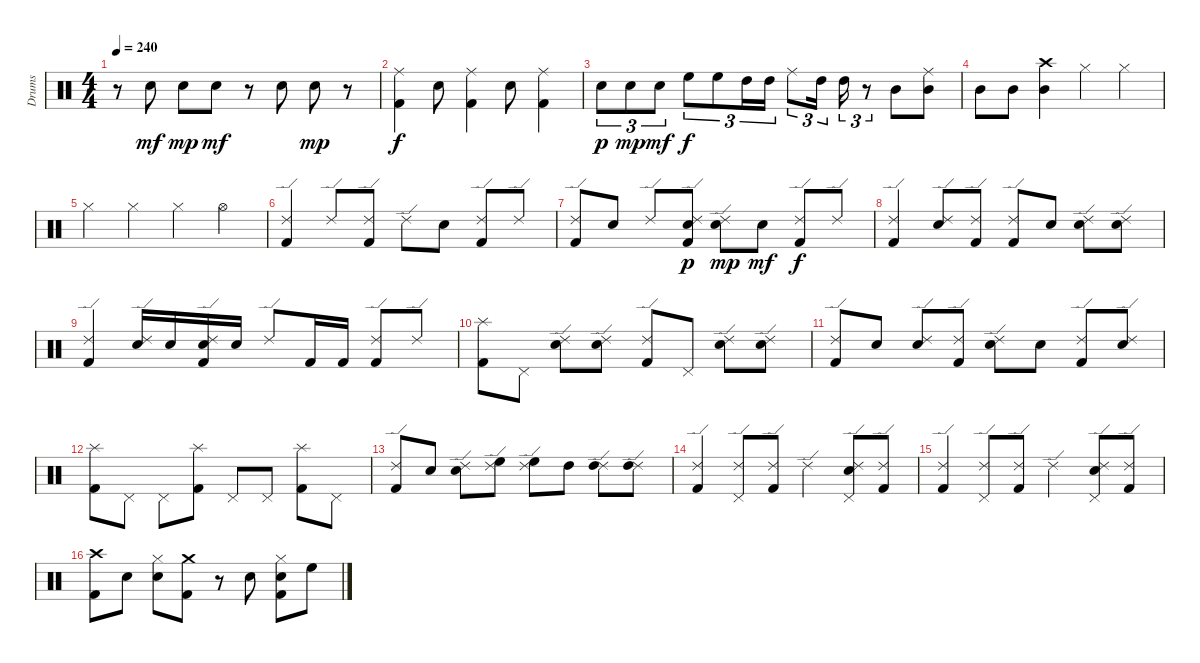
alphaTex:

\track ("Drums" "Drums") {instrument percussion}
\staff {score}
\articulation defaults
\ts (4 4)
\tempo 240
\clef neutral
\ks c
r.8{dy mp} "Electric Snare (hit)".8{dy mf} "Electric Snare (hit)".8{dy mp} "Electric Snare (hit)".8{dy mf} r.8 "Electric Snare (hit)".8 "Electric Snare (hit)".8{dy mp} r.8 |
("Ride (middle)" "Kick (hit) 2").4{dy f} "Electric Snare (hit)".8 ("Ride (middle)" "Kick (hit) 2").4 "Electric Snare (hit)".8 ("Ride (middle)" "Kick (hit) 2").4 |
"Electric Snare (hit)".8{tu (3 2) dy p} "Electric Snare (hit)".8{tu (3 2) dy mp} "Electric Snare (hit)".8{tu (3 2) dy mf} "High Floor Tom (hit)".8{tu (3 2) dy f} "High Floor Tom (hit)".8{tu (3 2)} "High Tom (hit)".16{tu (3 2)} "High Tom (hit)".16{tu (3 2)} "Ride (middle)".8{tu (3 2)} "High Tom (hit)".16{tu (3 2)} "High Tom (hit)".16{tu (3 2)} r.8{tu (3 2)} "Mid Tom (hit)".8 ("Ride (middle)" "Mid Tom (hit)").8 |
"Mid Tom (hit)".8 "Mid Tom (hit)".8 ("Crash high (hit)" "Mid Tom (hit)").4 "Hi-Hat (closed)".4 "Hi-Hat (closed)".4 |
"Hi-Hat (closed)".4 "Hi-Hat (closed)".4 "Hi-Hat (closed)".4 "Hi-Hat (open)".4 |
("Ride (edge) 2" "Kick (hit) 2").4 "Ride (edge) 2".8 ("Ride (edge) 2" "Kick (hit) 2").8 "Ride (edge) 2".8 "Snare (hit) 2".8 ("Ride (edge) 2" "Kick (hit) 2").8 "Ride (edge) 2".8 |
("Ride (edge) 2" "Kick (hit) 2").8 "Snare (hit) 2".8 "Ride (edge) 2".8 ("Ride (edge) 2" "Snare (hit) 2" "Kick (hit) 2").8{dy p} ("Ride (edge) 2" "Snare (hit) 2").8{dy mp} "Snare (hit) 2".8{dy mf} ("Ride (edge) 2" "Kick (hit) 2").8{dy f} "Ride (edge) 2".8 |
("Ride (edge) 2" "Kick (hit) 2").4 ("Ride (edge) 2" "Snare (hit) 2").8 ("Ride (edge) 2" "Kick (hit) 2").8 ("Ride (edge) 2" "Kick (hit) 2").8 "Snare (hit) 2".8 ("Ride (edge) 2" "Snare (hit) 2").8 ("Ride (edge) 2" "Snare (hit) 2").8 |
("Ride (edge) 2" "Kick (hit) 2").4 ("Ride (edge) 2" "Snare (hit) 2").16 "Snare (hit) 2".16 ("Ride (edge) 2" "Snare (hit) 2" "Kick (hit) 2").16 "Snare (hit) 2".16 "Ride (edge) 2".8 "Kick (hit) 2".16 "Kick (hit) 2".16 ("Ride (edge) 2" "Kick (hit) 2").8 "Ride (edge) 2".8 |
("Splash (hit)" "Kick (hit) 2").8 "Pedal Hi-Hat (hit)".8 ("Ride (edge) 2" "Snare (hit) 2").8 ("Ride (edge) 2" "Snare (hit) 2").8 ("Ride (edge) 2" "Kick (hit) 2").8 "Pedal Hi-Hat (hit)".8 ("Ride (edge) 2" "Snare (hit) 2").8 ("Ride (edge) 2" "Snare (hit) 2").8 |
("Ride (edge) 2" "Kick (hit) 2").8 "Snare (hit) 2".8 ("Ride (edge) 2" "Snare (hit) 2").8 ("Ride (edge) 2" "Kick (hit) 2").8 ("Ride (edge) 2" "Snare (hit) 2").8 "Snare (hit) 2".8 ("Ride (edge) 2" "Kick (hit) 2").8 ("Ride (edge) 2" "Snare (hit) 2").8 |
("Splash (hit)" "Kick (hit) 2").8 "Pedal Hi-Hat (hit)".8 "Pedal Hi-Hat (hit)".8 ("Splash (hit)" "Kick (hit) 2").8 "Pedal Hi-Hat (hit)".8 "Pedal Hi-Hat (hit)".8 ("Splash (hit)" "Kick (hit) 2").8 "Pedal Hi-Hat (hit)".8 |
("Ride (edge) 2" "Kick (hit) 2").8 "Snare (hit) 2".8 ("Ride (edge) 2" "Snare (hit) 2").8 ("Ride (edge) 2" "High Floor Tom (hit)").8 ("Ride (edge) 2" "High Floor Tom (hit)").8 "High Tom (hit)".8 ("Ride (edge) 2" "High Tom (hit)").8 ("Ride (edge) 2" "High Tom (hit)").8 |
("Ride (edge) 2" "Kick (hit) 2").4 ("Ride (edge) 2" "Pedal Hi-Hat (hit)").8 ("Ride (edge) 2" "Kick (hit) 2").8 "Ride (edge) 2".4 ("Ride (edge) 2" "Pedal Hi-Hat (hit)" "Snare (hit) 2").8 ("Ride (edge) 2" "Kick (hit) 2").8 |
("Ride (edge) 2" "Kick (hit) 2").4 ("Ride (edge) 2" "Pedal Hi-Hat (hit)").8 ("Ride (edge) 2" "Kick (hit) 2").8 "Ride (edge) 2".4 ("Ride (edge) 2" "Pedal Hi-Hat (hit)" "Snare (hit) 2").8 ("Ride (edge) 2" "Kick (hit) 2").8 |
("Crash high (hit)" "Kick (hit) 2").8 "Snare (hit) 2".8 ("Hi-Hat (closed)" "Snare (hit) 2").8 ("Crash medium (hit)" "Kick (hit) 2").8 r.8 "Snare (hit) 2".8 ("Hi-Hat (closed)" "Snare (hit) 2" "Kick (hit) 2").8 "High Floor Tom (hit)".8
